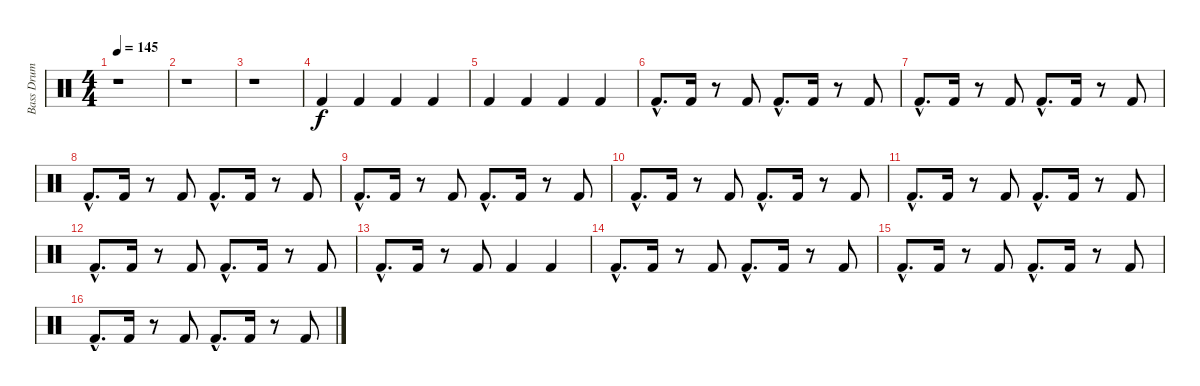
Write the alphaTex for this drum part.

\track ("Bass Drum" "Bass Drum") {instrument percussion}
\staff {score}
\articulation defaults
\ts (4 4)
\tempo 145
\clef neutral
\ks c
r.1{dy f} |
r.1 |
r.1 |
"Kick (hit) 2".4 "Kick (hit) 2".4 "Kick (hit) 2".4 "Kick (hit) 2".4 |
"Kick (hit) 2".4 "Kick (hit) 2".4 "Kick (hit) 2".4 "Kick (hit) 2".4 |
"Kick (hit) 2"{hac}.8{d} "Kick (hit) 2".16 r.8 "Kick (hit) 2".8 "Kick (hit) 2"{hac}.8{d} "Kick (hit) 2".16 r.8 "Kick (hit) 2".8 |
"Kick (hit) 2"{hac}.8{d} "Kick (hit) 2".16 r.8 "Kick (hit) 2".8 "Kick (hit) 2"{hac}.8{d} "Kick (hit) 2".16 r.8 "Kick (hit) 2".8 |
"Kick (hit) 2"{hac}.8{d} "Kick (hit) 2".16 r.8 "Kick (hit) 2".8 "Kick (hit) 2"{hac}.8{d} "Kick (hit) 2".16 r.8 "Kick (hit) 2".8 |
"Kick (hit) 2"{hac}.8{d} "Kick (hit) 2".16 r.8 "Kick (hit) 2".8 "Kick (hit) 2"{hac}.8{d} "Kick (hit) 2".16 r.8 "Kick (hit) 2".8 |
"Kick (hit) 2"{hac}.8{d} "Kick (hit) 2".16 r.8 "Kick (hit) 2".8 "Kick (hit) 2"{hac}.8{d} "Kick (hit) 2".16 r.8 "Kick (hit) 2".8 |
"Kick (hit) 2"{hac}.8{d} "Kick (hit) 2".16 r.8 "Kick (hit) 2".8 "Kick (hit) 2"{hac}.8{d} "Kick (hit) 2".16 r.8 "Kick (hit) 2".8 |
"Kick (hit) 2"{hac}.8{d} "Kick (hit) 2".16 r.8 "Kick (hit) 2".8 "Kick (hit) 2"{hac}.8{d} "Kick (hit) 2".16 r.8 "Kick (hit) 2".8 |
"Kick (hit) 2"{hac}.8{d} "Kick (hit) 2".16 r.8 "Kick (hit) 2".8 "Kick (hit) 2".4 "Kick (hit) 2".4 |
"Kick (hit) 2"{hac}.8{d} "Kick (hit) 2".16 r.8 "Kick (hit) 2".8 "Kick (hit) 2"{hac}.8{d} "Kick (hit) 2".16 r.8 "Kick (hit) 2".8 |
"Kick (hit) 2"{hac}.8{d} "Kick (hit) 2".16 r.8 "Kick (hit) 2".8 "Kick (hit) 2"{hac}.8{d} "Kick (hit) 2".16 r.8 "Kick (hit) 2".8 |
"Kick (hit) 2"{hac}.8{d} "Kick (hit) 2".16 r.8 "Kick (hit) 2".8 "Kick (hit) 2"{hac}.8{d} "Kick (hit) 2".16 r.8 "Kick (hit) 2".8
